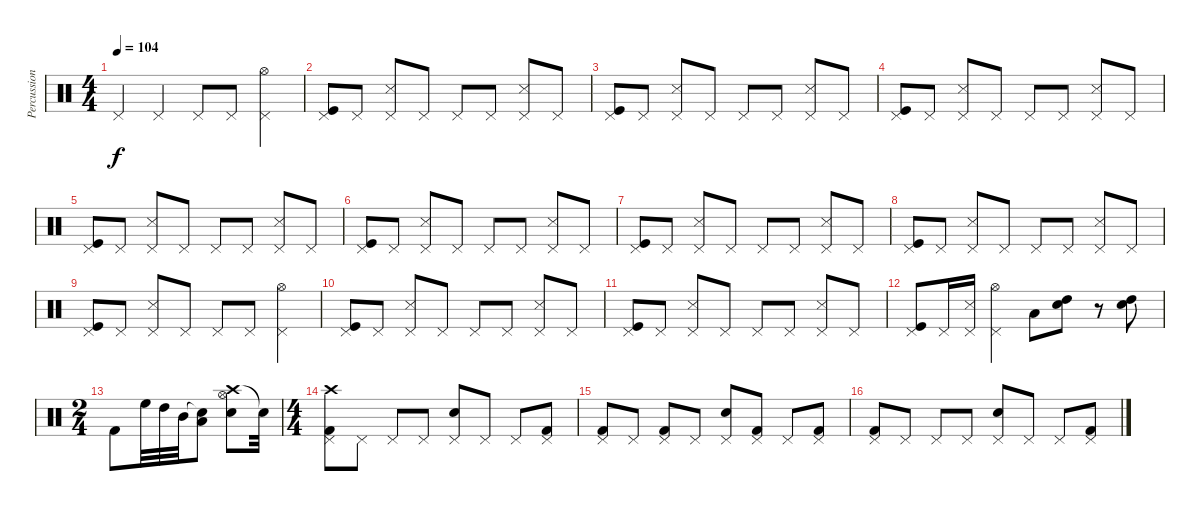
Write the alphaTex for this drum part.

\track ("Percussion" "Percussion") {instrument percussion}
\staff {score}
\articulation defaults
\ts (4 4)
\tempo 104
\clef neutral
\ks c "Pedal Hi-Hat (hit)".4{dy f} "Pedal Hi-Hat (hit)".4 "Pedal Hi-Hat (hit)".8 "Pedal Hi-Hat (hit)".8
("Pedal Hi-Hat (hit)" "Hi-Hat (open)").4 |
("Pedal Hi-Hat (hit)" "Kick (hit)").8 "Pedal Hi-Hat (hit)".8 ("Pedal Hi-Hat (hit)" "Snare (side stick) 3").8 "Pedal Hi-Hat (hit)".8 "Pedal Hi-Hat (hit)".8 "Pedal Hi-Hat (hit)".8 ("Pedal Hi-Hat (hit)" "Snare (side stick) 3").8 "Pedal Hi-Hat (hit)".8 |
("Pedal Hi-Hat (hit)" "Kick (hit)").8 "Pedal Hi-Hat (hit)".8 ("Pedal Hi-Hat (hit)" "Snare (side stick) 3").8 "Pedal Hi-Hat (hit)".8 "Pedal Hi-Hat (hit)".8 "Pedal Hi-Hat (hit)".8 ("Pedal Hi-Hat (hit)" "Snare (side stick) 3").8 "Pedal Hi-Hat (hit)".8 |
("Pedal Hi-Hat (hit)" "Kick (hit)").8 "Pedal Hi-Hat (hit)".8 ("Pedal Hi-Hat (hit)" "Snare (side stick) 3").8 "Pedal Hi-Hat (hit)".8 "Pedal Hi-Hat (hit)".8 "Pedal Hi-Hat (hit)".8 ("Pedal Hi-Hat (hit)" "Snare (side stick) 3").8 "Pedal Hi-Hat (hit)".8 |
("Pedal Hi-Hat (hit)" "Kick (hit)").8 "Pedal Hi-Hat (hit)".8 ("Pedal Hi-Hat (hit)" "Snare (side stick) 3").8 "Pedal Hi-Hat (hit)".8 "Pedal Hi-Hat (hit)".8 "Pedal Hi-Hat (hit)".8 ("Pedal Hi-Hat (hit)" "Snare (side stick) 3").8 "Pedal Hi-Hat (hit)".8 |
("Pedal Hi-Hat (hit)" "Kick (hit)").8 "Pedal Hi-Hat (hit)".8 ("Pedal Hi-Hat (hit)" "Snare (side stick) 3").8 "Pedal Hi-Hat (hit)".8 "Pedal Hi-Hat (hit)".8 "Pedal Hi-Hat (hit)".8 ("Pedal Hi-Hat (hit)" "Snare (side stick) 3").8 "Pedal Hi-Hat (hit)".8 |
("Pedal Hi-Hat (hit)" "Kick (hit)").8 "Pedal Hi-Hat (hit)".8 ("Pedal Hi-Hat (hit)" "Snare (side stick) 3").8 "Pedal Hi-Hat (hit)".8 "Pedal Hi-Hat (hit)".8 "Pedal Hi-Hat (hit)".8 ("Pedal Hi-Hat (hit)" "Snare (side stick) 3").8 "Pedal Hi-Hat (hit)".8 |
("Pedal Hi-Hat (hit)" "Kick (hit)").8 "Pedal Hi-Hat (hit)".8 ("Pedal Hi-Hat (hit)" "Snare (side stick) 3").8 "Pedal Hi-Hat (hit)".8 "Pedal Hi-Hat (hit)".8 "Pedal Hi-Hat (hit)".8 ("Pedal Hi-Hat (hit)" "Snare (side stick) 3").8 "Pedal Hi-Hat (hit)".8 |
("Pedal Hi-Hat (hit)" "Kick (hit)").8 "Pedal Hi-Hat (hit)".8 ("Pedal Hi-Hat (hit)" "Snare (side stick) 3").8 "Pedal Hi-Hat (hit)".8 "Pedal Hi-Hat (hit)".8 "Pedal Hi-Hat (hit)".8 ("Pedal Hi-Hat (hit)" "Hi-Hat (open)").4 |
("Pedal Hi-Hat (hit)" "Kick (hit)").8 "Pedal Hi-Hat (hit)".8 ("Pedal Hi-Hat (hit)" "Snare (side stick) 3").8 "Pedal Hi-Hat (hit)".8 "Pedal Hi-Hat (hit)".8 "Pedal Hi-Hat (hit)".8 ("Pedal Hi-Hat (hit)" "Snare (side stick) 3").8 "Pedal Hi-Hat (hit)".8 |
("Pedal Hi-Hat (hit)" "Kick (hit)").8 "Pedal Hi-Hat (hit)".8 ("Pedal Hi-Hat (hit)" "Snare (side stick) 3").8 "Pedal Hi-Hat (hit)".8 "Pedal Hi-Hat (hit)".8 "Pedal Hi-Hat (hit)".8 ("Pedal Hi-Hat (hit)" "Snare (side stick) 3").8 "Pedal Hi-Hat (hit)".8 |
("Pedal Hi-Hat (hit)" "Kick (hit)").8 "Pedal Hi-Hat (hit)".16 ("Pedal Hi-Hat (hit)" "Snare (side stick) 3").16 ("Pedal Hi-Hat (hit)" "Hi-Hat (open)").4 "Low Tom (hit)".8 ("High Tom (hit)" "Electric Snare (hit)").8 r.8 ("High Tom (hit)" "Electric Snare (hit)").8 |
\ts (2 4)
"Kick (hit) 2".8 "High Floor Tom (hit)".32 "High Tom (hit)".32 "Mid Tom (hit)".32 ("Snare (hit)"{t} "Low Tom (hit)").8 ("Crash high (hit)" "Hi-Hat (open)" "Snare (hit)").8 "Snare (hit)"{t}.32 |
\ts (4 4)
("Pedal Hi-Hat (hit)" "Kick (hit) 2" "Crash high (hit)").8 "Pedal Hi-Hat (hit)".8 "Pedal Hi-Hat (hit)".8 "Pedal Hi-Hat (hit)".8 ("Pedal Hi-Hat (hit)" "Snare (hit) 2").8 "Pedal Hi-Hat (hit)".8 "Pedal Hi-Hat (hit)".8 ("Pedal Hi-Hat (hit)" "Kick (hit) 2").8 |
("Pedal Hi-Hat (hit)" "Kick (hit) 2").8 "Pedal Hi-Hat (hit)".8 ("Pedal Hi-Hat (hit)" "Kick (hit) 2").8 "Pedal Hi-Hat (hit)".8 ("Pedal Hi-Hat (hit)" "Snare (hit) 2").8 ("Pedal Hi-Hat (hit)" "Kick (hit) 2").8 "Pedal Hi-Hat (hit)".8 ("Pedal Hi-Hat (hit)" "Kick (hit) 2").8 |
("Pedal Hi-Hat (hit)" "Kick (hit) 2").8 "Pedal Hi-Hat (hit)".8 "Pedal Hi-Hat (hit)".8 "Pedal Hi-Hat (hit)".8 ("Pedal Hi-Hat (hit)" "Snare (hit) 2").8 "Pedal Hi-Hat (hit)".8 "Pedal Hi-Hat (hit)".8 ("Pedal Hi-Hat (hit)" "Kick (hit) 2").8
